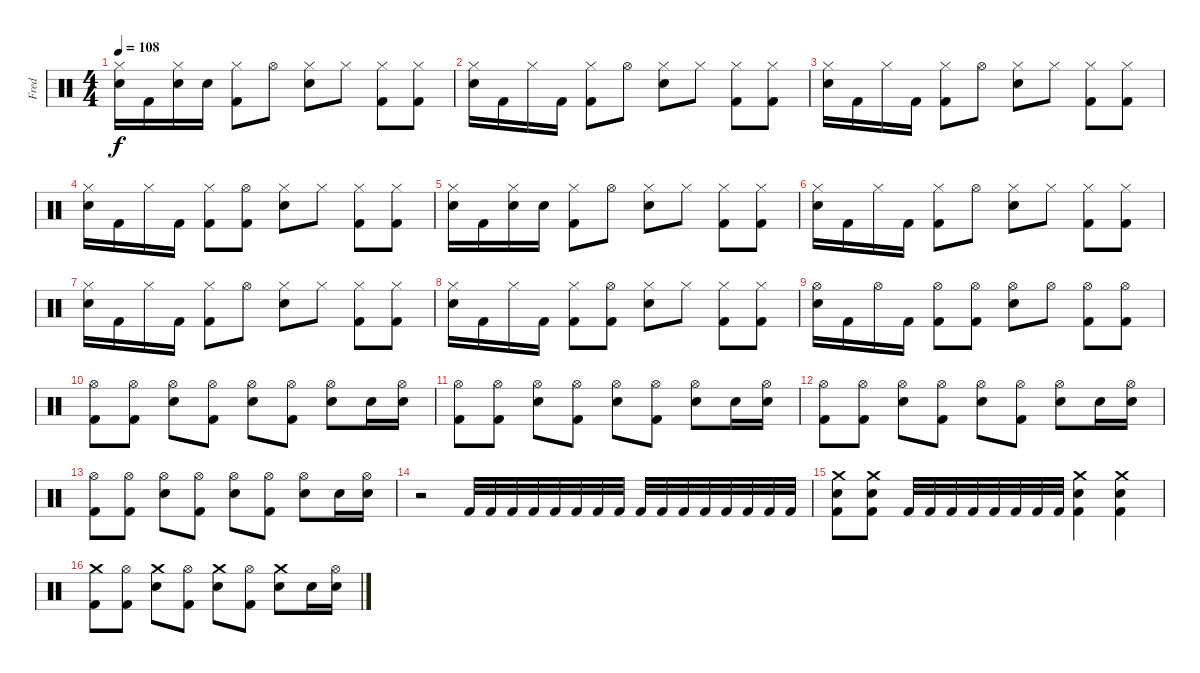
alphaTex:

\track ("Fred" "Fred") {instrument percussion}
\staff {score}
\articulation defaults
\ts (4 4)
\tempo 108
\clef neutral
\ks c
("Hi-Hat (closed)" "Snare (hit) 2").16{dy f} "Kick (hit) 2".16 ("Hi-Hat (closed)" "Snare (hit) 2").16 "Snare (hit) 2".16 ("Hi-Hat (closed)" "Kick (hit) 2").8 "Hi-Hat (open)".8 ("Hi-Hat (closed)" "Snare (hit) 2").8 "Hi-Hat (closed)".8 ("Hi-Hat (closed)" "Kick (hit) 2").8 ("Hi-Hat (closed)" "Kick (hit) 2").8 |
("Hi-Hat (closed)" "Snare (hit) 2").16 "Kick (hit) 2".16 "Hi-Hat (closed)".16 "Kick (hit) 2".16 ("Hi-Hat (closed)" "Kick (hit) 2").8 "Hi-Hat (open)".8 ("Hi-Hat (closed)" "Snare (hit) 2").8 "Hi-Hat (closed)".8 ("Hi-Hat (closed)" "Kick (hit) 2").8 ("Hi-Hat (closed)" "Kick (hit) 2").8 |
("Hi-Hat (closed)" "Snare (hit) 2").16 "Kick (hit) 2".16 "Hi-Hat (closed)".16 "Kick (hit) 2".16 ("Hi-Hat (closed)" "Kick (hit) 2").8 "Hi-Hat (open)".8 ("Hi-Hat (closed)" "Snare (hit) 2").8 "Hi-Hat (closed)".8 ("Hi-Hat (closed)" "Kick (hit) 2").8 ("Hi-Hat (closed)" "Kick (hit) 2").8 |
("Hi-Hat (closed)" "Snare (hit) 2").16 "Kick (hit) 2".16 "Hi-Hat (closed)".16 "Kick (hit) 2".16 ("Hi-Hat (closed)" "Kick (hit) 2").8 ("Hi-Hat (open)" "Kick (hit) 2").8 ("Hi-Hat (closed)" "Snare (hit) 2").8 "Hi-Hat (closed)".8 ("Hi-Hat (closed)" "Kick (hit) 2").8 ("Hi-Hat (closed)" "Kick (hit) 2").8 |
("Hi-Hat (closed)" "Snare (hit) 2").16 "Kick (hit) 2".16 ("Hi-Hat (closed)" "Snare (hit) 2").16 "Snare (hit) 2".16 ("Hi-Hat (closed)" "Kick (hit) 2").8 "Hi-Hat (open)".8 ("Hi-Hat (closed)" "Snare (hit) 2").8 "Hi-Hat (closed)".8 ("Hi-Hat (closed)" "Kick (hit) 2").8 ("Hi-Hat (closed)" "Kick (hit) 2").8 |
("Hi-Hat (closed)" "Snare (hit) 2").16 "Kick (hit) 2".16 "Hi-Hat (closed)".16 "Kick (hit) 2".16 ("Hi-Hat (closed)" "Kick (hit) 2").8 "Hi-Hat (open)".8 ("Hi-Hat (closed)" "Snare (hit) 2").8 "Hi-Hat (closed)".8 ("Hi-Hat (closed)" "Kick (hit) 2").8 ("Hi-Hat (closed)" "Kick (hit) 2").8 |
("Hi-Hat (closed)" "Snare (hit) 2").16 "Kick (hit) 2".16 "Hi-Hat (closed)".16 "Kick (hit) 2".16 ("Hi-Hat (closed)" "Kick (hit) 2").8 "Hi-Hat (open)".8 ("Hi-Hat (closed)" "Snare (hit) 2").8 "Hi-Hat (closed)".8 ("Hi-Hat (closed)" "Kick (hit) 2").8 ("Hi-Hat (closed)" "Kick (hit) 2").8 |
("Hi-Hat (closed)" "Snare (hit) 2").16 "Kick (hit) 2".16 "Hi-Hat (closed)".16 "Kick (hit) 2".16 ("Hi-Hat (closed)" "Kick (hit) 2").8 ("Hi-Hat (open)" "Kick (hit) 2").8 ("Hi-Hat (closed)" "Snare (hit) 2").8 "Hi-Hat (closed)".8 ("Hi-Hat (closed)" "Kick (hit) 2").8 ("Hi-Hat (closed)" "Kick (hit) 2").8 |
("Hi-Hat (open)" "Snare (hit) 2").16 "Kick (hit) 2".16 "Hi-Hat (open)".16 "Kick (hit) 2".16 ("Hi-Hat (open)" "Kick (hit) 2").8 ("Hi-Hat (open)" "Kick (hit) 2").8 ("Hi-Hat (open)" "Snare (hit) 2").8 "Hi-Hat (open)".8 ("Hi-Hat (open)" "Kick (hit) 2").8 ("Hi-Hat (open)" "Kick (hit) 2").8 |
("Hi-Hat (open)" "Kick (hit) 2").8 ("Hi-Hat (open)" "Kick (hit) 2").8 ("Hi-Hat (open)" "Snare (hit) 2").8 ("Hi-Hat (open)" "Kick (hit) 2").8 ("Hi-Hat (open)" "Snare (hit) 2").8 ("Hi-Hat (open)" "Kick (hit) 2").8 ("Hi-Hat (open)" "Snare (hit) 2").8 "Snare (hit) 2".16 ("Hi-Hat (open)" "Snare (hit) 2").16 |
("Hi-Hat (open)" "Kick (hit) 2").8 ("Hi-Hat (open)" "Kick (hit) 2").8 ("Hi-Hat (open)" "Snare (hit) 2").8 ("Hi-Hat (open)" "Kick (hit) 2").8 ("Hi-Hat (open)" "Snare (hit) 2").8 ("Hi-Hat (open)" "Kick (hit) 2").8 ("Hi-Hat (open)" "Snare (hit) 2").8 "Snare (hit) 2".16 ("Hi-Hat (open)" "Snare (hit) 2").16 |
("Hi-Hat (open)" "Kick (hit) 2").8 ("Hi-Hat (open)" "Kick (hit) 2").8 ("Hi-Hat (open)" "Snare (hit) 2").8 ("Hi-Hat (open)" "Kick (hit) 2").8 ("Hi-Hat (open)" "Snare (hit) 2").8 ("Hi-Hat (open)" "Kick (hit) 2").8 ("Hi-Hat (open)" "Snare (hit) 2").8 "Snare (hit) 2".16 ("Hi-Hat (open)" "Snare (hit) 2").16 |
("Hi-Hat (open)" "Kick (hit) 2").8 ("Hi-Hat (open)" "Kick (hit) 2").8 ("Hi-Hat (open)" "Snare (hit) 2").8 ("Hi-Hat (open)" "Kick (hit) 2").8 ("Hi-Hat (open)" "Snare (hit) 2").8 ("Hi-Hat (open)" "Kick (hit) 2").8 ("Hi-Hat (open)" "Snare (hit) 2").8 "Snare (hit) 2".16 ("Hi-Hat (open)" "Snare (hit) 2").16 |
r.2 "Kick (hit) 2".32 "Kick (hit) 2".32 "Kick (hit) 2".32 "Kick (hit) 2".32 "Kick (hit) 2".32 "Kick (hit) 2".32 "Kick (hit) 2".32 "Kick (hit) 2".32 "Kick (hit) 2".32 "Kick (hit) 2".32 "Kick (hit) 2".32 "Kick (hit) 2".32 "Kick (hit) 2".32 "Kick (hit) 2".32 "Kick (hit) 2".32 "Kick (hit) 2".32 |
("Crash medium (hit)" "Snare (hit) 2" "Kick (hit) 2").8 ("Crash medium (hit)" "Snare (hit) 2" "Kick (hit) 2").8 "Kick (hit) 2".32 "Kick (hit) 2".32 "Kick (hit) 2".32 "Kick (hit) 2".32 "Kick (hit) 2".32 "Kick (hit) 2".32 "Kick (hit) 2".32 "Kick (hit) 2".32 ("Crash medium (hit)" "Snare (hit) 2" "Kick (hit) 2").4 ("Crash medium (hit)" "Snare (hit) 2" "Kick (hit) 2").4 |
("Crash medium (hit)" "Kick (hit) 2").8 ("Hi-Hat (open)" "Kick (hit) 2").8 ("Crash medium (hit)" "Snare (hit) 2").8 ("Hi-Hat (open)" "Kick (hit) 2").8 ("Crash medium (hit)" "Snare (hit) 2").8 ("Hi-Hat (open)" "Kick (hit) 2").8 ("Crash medium (hit)" "Snare (hit) 2").8 "Snare (hit) 2".16 ("Hi-Hat (open)" "Snare (hit) 2").16
